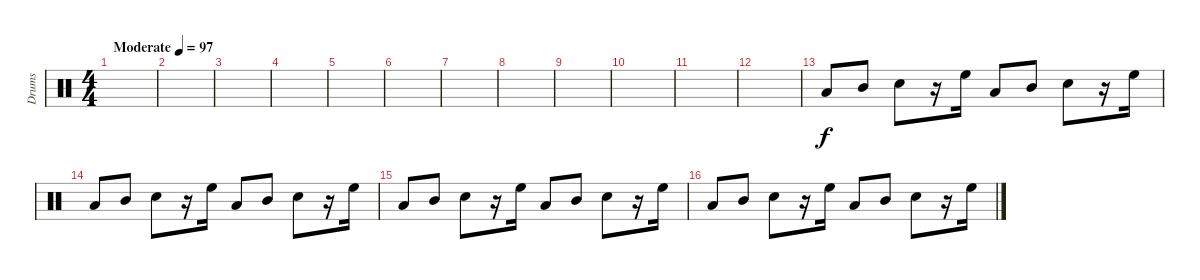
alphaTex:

\track ("Drums" "Drums") {instrument percussion}
\staff {score}
\articulation defaults
\ts (4 4)
\tempo (97 "Moderate")
\clef neutral
\ks c
|
|
|
|
|
|
|
|
|
|
|
|
"Low Tom (hit)".8 "Mid Tom (hit)".8 "Snare (hit) 2".8 r.16 "High Floor Tom (hit)".16 "Low Tom (hit)".8 "Mid Tom (hit)".8 "Snare (hit) 2".8 r.16 "High Floor Tom (hit)".16 |
"Low Tom (hit)".8 "Mid Tom (hit)".8 "Snare (hit) 2".8 r.16 "High Floor Tom (hit)".16 "Low Tom (hit)".8 "Mid Tom (hit)".8 "Snare (hit) 2".8 r.16 "High Floor Tom (hit)".16 |
"Low Tom (hit)".8 "Mid Tom (hit)".8 "Snare (hit) 2".8 r.16 "High Floor Tom (hit)".16 "Low Tom (hit)".8 "Mid Tom (hit)".8 "Snare (hit) 2".8 r.16 "High Floor Tom (hit)".16 |
"Low Tom (hit)".8 "Mid Tom (hit)".8 "Snare (hit) 2".8 r.16 "High Floor Tom (hit)".16 "Low Tom (hit)".8 "Mid Tom (hit)".8 "Snare (hit) 2".8 r.16 "High Floor Tom (hit)".16
